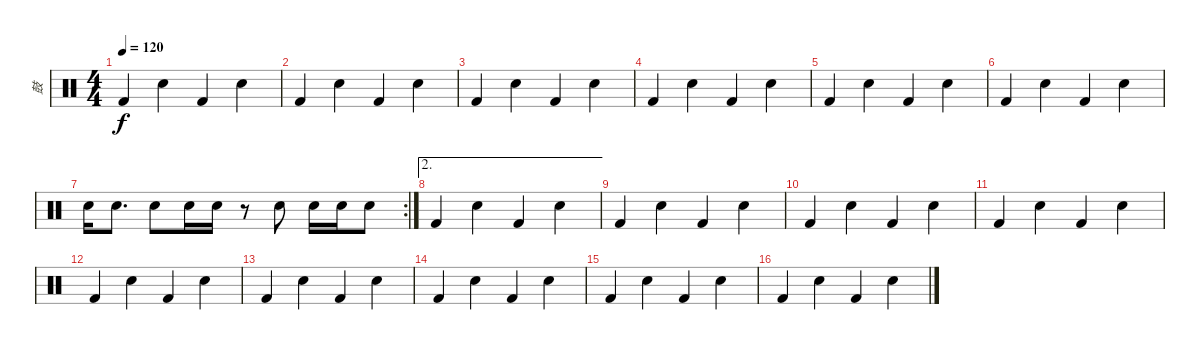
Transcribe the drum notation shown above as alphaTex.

\track ("鼓" "鼓") {instrument percussion}
\staff {score}
\articulation defaults
\ts (4 4)
\tempo 120
\clef neutral
\ks c "Kick (hit) 2".4{dy f} "Electric Snare (hit)".4 "Kick (hit) 2".4 "Electric Snare (hit)".4
|
"Kick (hit) 2".4 "Electric Snare (hit)".4 "Kick (hit) 2".4 "Electric Snare (hit)".4 |
"Kick (hit) 2".4 "Electric Snare (hit)".4 "Kick (hit) 2".4 "Electric Snare (hit)".4 |
"Kick (hit) 2".4 "Electric Snare (hit)".4 "Kick (hit) 2".4 "Electric Snare (hit)".4 |
"Kick (hit) 2".4 "Electric Snare (hit)".4 "Kick (hit) 2".4 "Electric Snare (hit)".4 |
"Kick (hit) 2".4 "Electric Snare (hit)".4 "Kick (hit) 2".4 "Electric Snare (hit)".4 |
\rc 2 "Electric Snare (hit)".16 "Electric Snare (hit)".8{d} "Electric Snare (hit)".8 "Electric Snare (hit)".16 "Electric Snare (hit)".16
r.8 "Electric Snare (hit)".8 "Electric Snare (hit)".16 "Electric Snare (hit)".16 "Electric Snare (hit)".8 |
\ae 2 "Kick (hit) 2".4 "Electric Snare (hit)".4 "Kick (hit) 2".4 "Electric Snare (hit)".4
|
"Kick (hit) 2".4 "Electric Snare (hit)".4 "Kick (hit) 2".4 "Electric Snare (hit)".4 |
"Kick (hit) 2".4 "Electric Snare (hit)".4 "Kick (hit) 2".4 "Electric Snare (hit)".4 |
"Kick (hit) 2".4 "Snare (hit) 2".4 "Kick (hit) 2".4 "Snare (hit) 2".4 |
"Kick (hit) 2".4 "Snare (hit) 2".4 "Kick (hit) 2".4 "Snare (hit) 2".4 |
"Kick (hit) 2".4 "Snare (hit) 2".4 "Kick (hit) 2".4 "Snare (hit) 2".4 |
"Kick (hit) 2".4 "Snare (hit) 2".4 "Kick (hit) 2".4 "Snare (hit) 2".4 |
"Kick (hit) 2".4 "Snare (hit) 2".4 "Kick (hit) 2".4 "Snare (hit) 2".4 |
"Kick (hit) 2".4 "Snare (hit) 2".4 "Kick (hit) 2".4 "Snare (hit) 2".4
